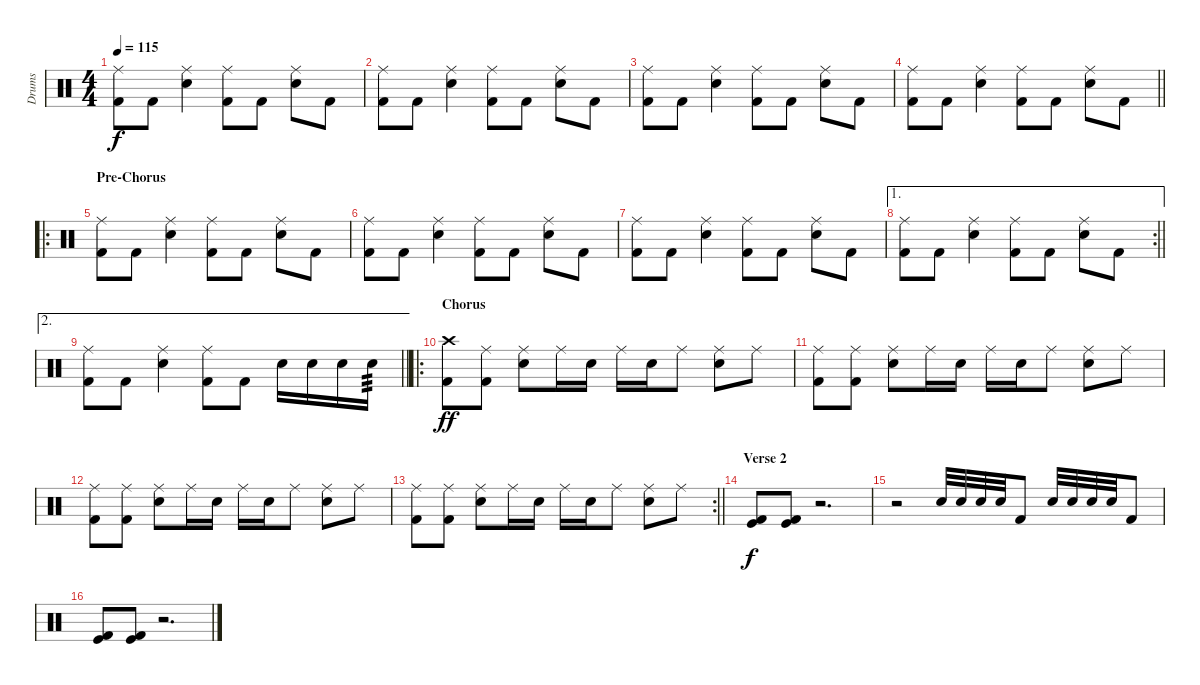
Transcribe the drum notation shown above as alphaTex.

\track ("Drums" "Drums") {instrument percussion}
\staff {score}
\articulation defaults
\ts (4 4)
\tempo 115
\clef neutral
\ks c
("Ride (middle)" "Kick (hit) 2").8{dy f} "Kick (hit) 2".8 ("Ride (middle)" "Electric Snare (hit)").4 ("Ride (middle)" "Kick (hit) 2").8 "Kick (hit) 2".8 ("Ride (middle)" "Electric Snare (hit)").8 "Kick (hit) 2".8 |
("Ride (middle)" "Kick (hit) 2").8 "Kick (hit) 2".8 ("Ride (middle)" "Electric Snare (hit)").4 ("Ride (middle)" "Kick (hit) 2").8 "Kick (hit) 2".8 ("Ride (middle)" "Electric Snare (hit)").8 "Kick (hit) 2".8 |
("Ride (middle)" "Kick (hit) 2").8 "Kick (hit) 2".8 ("Ride (middle)" "Electric Snare (hit)").4 ("Ride (middle)" "Kick (hit) 2").8 "Kick (hit) 2".8 ("Ride (middle)" "Electric Snare (hit)").8 "Kick (hit) 2".8 |
\barLineRight lightlight
("Ride (middle)" "Kick (hit) 2").8 "Kick (hit) 2".8 ("Ride (middle)" "Electric Snare (hit)").4 ("Ride (middle)" "Kick (hit) 2").8 "Kick (hit) 2".8 ("Ride (middle)" "Electric Snare (hit)").8 "Kick (hit) 2".8 |
\ro
\section ("" "Pre-Chorus")
("Ride (middle)" "Kick (hit) 2").8 "Kick (hit) 2".8 ("Ride (middle)" "Electric Snare (hit)").4 ("Ride (middle)" "Kick (hit) 2").8 "Kick (hit) 2".8 ("Ride (middle)" "Electric Snare (hit)").8 "Kick (hit) 2".8 |
("Ride (middle)" "Kick (hit) 2").8 "Kick (hit) 2".8 ("Ride (middle)" "Electric Snare (hit)").4 ("Ride (middle)" "Kick (hit) 2").8 "Kick (hit) 2".8 ("Ride (middle)" "Electric Snare (hit)").8 "Kick (hit) 2".8 |
("Ride (middle)" "Kick (hit) 2").8 "Kick (hit) 2".8 ("Ride (middle)" "Electric Snare (hit)").4 ("Ride (middle)" "Kick (hit) 2").8 "Kick (hit) 2".8 ("Ride (middle)" "Electric Snare (hit)").8 "Kick (hit) 2".8 |
\ae 1
\rc 2
\barLineRight lightlight
("Ride (middle)" "Kick (hit) 2").8 "Kick (hit) 2".8 ("Ride (middle)" "Electric Snare (hit)").4 ("Ride (middle)" "Kick (hit) 2").8 "Kick (hit) 2".8 ("Ride (middle)" "Electric Snare (hit)").8 "Kick (hit) 2".8 |
\ae 2
\barLineRight lightlight
("Ride (middle)" "Kick (hit) 2").8 "Kick (hit) 2".8 ("Ride (middle)" "Electric Snare (hit)").4 ("Ride (middle)" "Kick (hit) 2").8 "Kick (hit) 2".8 "Snare (hit) 2".16 "Snare (hit) 2".16 "Snare (hit) 2".16 "Snare (hit) 2".16{tp 3} |
\ro
\section ("" "Chorus")
("Crash high (hit)" "Kick (hit) 2").8{dy ff} ("Ride (middle)" "Kick (hit) 2").8 ("Ride (middle)" "Snare (hit) 2").8 "Ride (middle)".16 "Snare (hit) 2".16 "Ride (middle)".16 "Snare (hit) 2".16 "Ride (middle)".8 ("Ride (middle)" "Snare (hit) 2").8 "Ride (middle)".8 |
("Ride (middle)" "Kick (hit) 2").8 ("Ride (middle)" "Kick (hit) 2").8 ("Ride (middle)" "Snare (hit) 2").8 "Ride (middle)".16 "Snare (hit) 2".16 "Ride (middle)".16 "Snare (hit) 2".16 "Ride (middle)".8 ("Ride (middle)" "Snare (hit) 2").8 "Ride (middle)".8 |
("Ride (middle)" "Kick (hit) 2").8 ("Ride (middle)" "Kick (hit) 2").8 ("Ride (middle)" "Snare (hit) 2").8 "Ride (middle)".16 "Snare (hit) 2".16 "Ride (middle)".16 "Snare (hit) 2".16 "Ride (middle)".8 ("Ride (middle)" "Snare (hit) 2").8 "Ride (middle)".8 |
\rc 2
\barLineRight lightlight
("Ride (middle)" "Kick (hit) 2").8 ("Ride (middle)" "Kick (hit) 2").8 ("Ride (middle)" "Snare (hit) 2").8 "Ride (middle)".16 "Snare (hit) 2".16 "Ride (middle)".16 "Snare (hit) 2".16 "Ride (middle)".8 ("Ride (middle)" "Snare (hit) 2").8 "Ride (middle)".8 |
\section ("" "Verse 2")
("Kick (hit)" "Kick (hit) 2").8{bd 60 dy f} ("Kick (hit)" "Kick (hit) 2").8{bd 60} r.2{d} |
r.2 "Snare (hit) 2".32 "Snare (hit) 2".32 "Snare (hit) 2".32 "Snare (hit) 2".32 "Kick (hit) 2".8 "Snare (hit) 2".32 "Snare (hit) 2".32 "Snare (hit) 2".32 "Snare (hit) 2".32 "Kick (hit) 2".8 |
("Kick (hit)" "Kick (hit) 2").8{bd 60} ("Kick (hit)" "Kick (hit) 2").8{bd 60} r.2{d}
